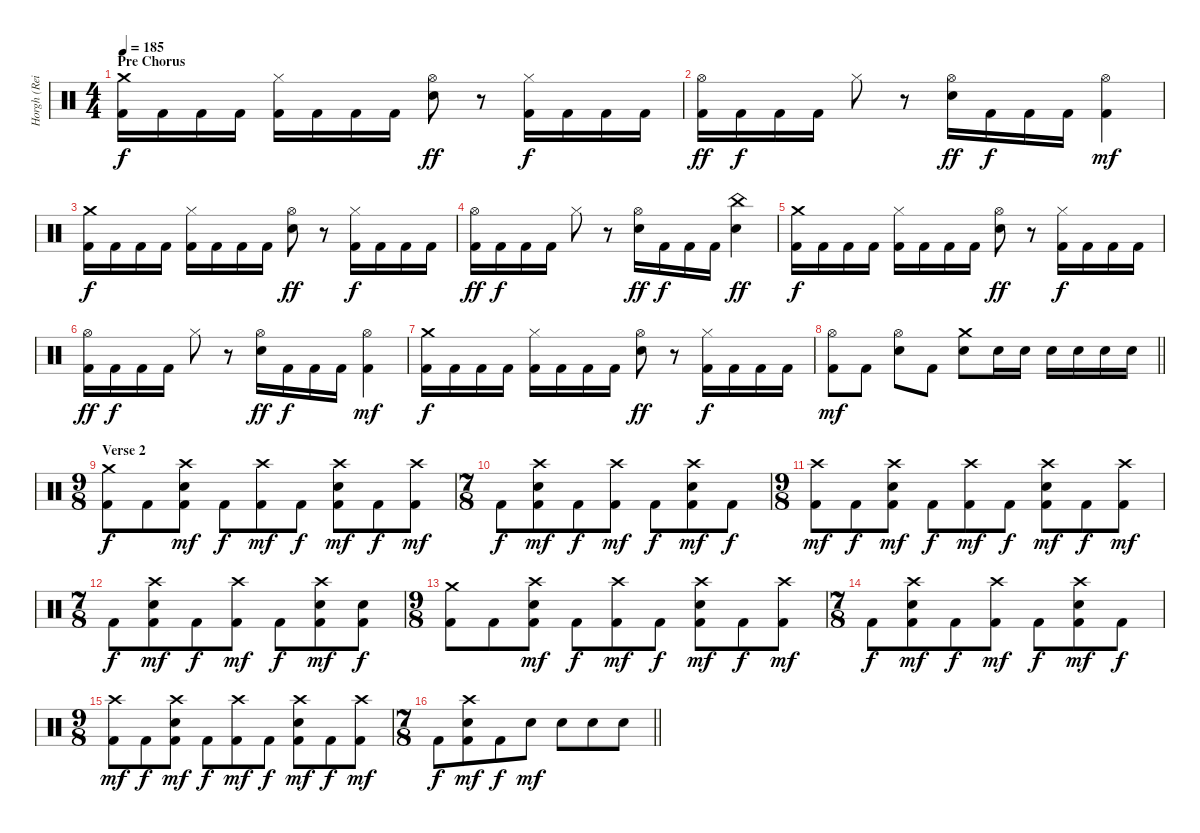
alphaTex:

\track ("Horgh (Reidar Horghagen)" "Horgh (Rei") {instrument percussion}
\staff {score}
\articulation defaults
\ts (4 4)
\section ("" "Pre Chorus")
\tempo 185
\clef neutral
\ks c
("Crash medium (hit)" "Kick (hit) 2").16{dy f} "Kick (hit) 2".16 "Kick (hit) 2".16 "Kick (hit) 2".16 ("Hi-Hat (closed)" "Kick (hit) 2").16 "Kick (hit) 2".16 "Kick (hit) 2".16 "Kick (hit) 2".16 ("Hi-Hat (open)" "Snare (hit) 2").8{dy ff} r.8 ("Hi-Hat (closed)" "Kick (hit) 2").16{dy f} "Kick (hit) 2".16 "Kick (hit) 2".16 "Kick (hit) 2".16 |
("Hi-Hat (open)" "Kick (hit) 2").16{dy ff} "Kick (hit) 2".16{dy f} "Kick (hit) 2".16 "Kick (hit) 2".16 "Hi-Hat (closed)".8 r.8 ("Hi-Hat (open)" "Snare (hit) 2").16{dy ff} "Kick (hit) 2".16{dy f} "Kick (hit) 2".16 "Kick (hit) 2".16 ("Hi-Hat (open)" "Kick (hit) 2").4{dy mf} |
("Crash medium (hit)" "Kick (hit) 2").16{dy f} "Kick (hit) 2".16 "Kick (hit) 2".16 "Kick (hit) 2".16 ("Hi-Hat (closed)" "Kick (hit) 2").16 "Kick (hit) 2".16 "Kick (hit) 2".16 "Kick (hit) 2".16 ("Hi-Hat (open)" "Snare (hit) 2").8{dy ff} r.8 ("Hi-Hat (closed)" "Kick (hit) 2").16{dy f} "Kick (hit) 2".16 "Kick (hit) 2".16 "Kick (hit) 2".16 |
("Hi-Hat (open)" "Kick (hit) 2").16{dy ff} "Kick (hit) 2".16{dy f} "Kick (hit) 2".16 "Kick (hit) 2".16 "Hi-Hat (closed)".8 r.8 ("Hi-Hat (open)" "Snare (hit) 2").16{dy ff} "Kick (hit) 2".16{dy f} "Kick (hit) 2".16 "Kick (hit) 2".16 ("China (hit)" "Snare (hit) 2").4{dy ff} |
("Crash medium (hit)" "Kick (hit) 2").16{dy f} "Kick (hit) 2".16 "Kick (hit) 2".16 "Kick (hit) 2".16 ("Hi-Hat (closed)" "Kick (hit) 2").16 "Kick (hit) 2".16 "Kick (hit) 2".16 "Kick (hit) 2".16 ("Hi-Hat (open)" "Snare (hit) 2").8{dy ff} r.8 ("Hi-Hat (closed)" "Kick (hit) 2").16{dy f} "Kick (hit) 2".16 "Kick (hit) 2".16 "Kick (hit) 2".16 |
("Hi-Hat (open)" "Kick (hit) 2").16{dy ff} "Kick (hit) 2".16{dy f} "Kick (hit) 2".16 "Kick (hit) 2".16 "Hi-Hat (closed)".8 r.8 ("Hi-Hat (open)" "Snare (hit) 2").16{dy ff} "Kick (hit) 2".16{dy f} "Kick (hit) 2".16 "Kick (hit) 2".16 ("Hi-Hat (open)" "Kick (hit) 2").4{dy mf} |
("Crash medium (hit)" "Kick (hit) 2").16{dy f} "Kick (hit) 2".16 "Kick (hit) 2".16 "Kick (hit) 2".16 ("Hi-Hat (closed)" "Kick (hit) 2").16 "Kick (hit) 2".16 "Kick (hit) 2".16 "Kick (hit) 2".16 ("Hi-Hat (open)" "Snare (hit) 2").8{dy ff} r.8 ("Hi-Hat (closed)" "Kick (hit) 2").16{dy f} "Kick (hit) 2".16 "Kick (hit) 2".16 "Kick (hit) 2".16 |
\barLineRight lightlight
("Hi-Hat (open)" "Kick (hit) 2").8{dy mf} "Kick (hit) 2".8 ("Hi-Hat (open)" "Snare (hit) 2").8 "Kick (hit) 2".8 ("Crash medium (hit)" "Snare (hit) 2").8 "Snare (hit) 2".16 "Snare (hit) 2".16 "Snare (hit) 2".16 "Snare (hit) 2".16 "Snare (hit) 2".16 "Snare (hit) 2".16 |
\ts (9 8)
\section ("" "Verse 2")
("Crash medium (hit)" "Kick (hit) 2").8{dy f} "Kick (hit) 2".8 ("Crash high (hit)" "Snare (hit) 2" "Kick (hit) 2").8{dy mf} "Kick (hit) 2".8{dy f} ("Crash high (hit)" "Kick (hit) 2").8{dy mf} "Kick (hit) 2".8{dy f} ("Crash high (hit)" "Snare (hit) 2" "Kick (hit) 2").8{dy mf} "Kick (hit) 2".8{dy f} ("Crash high (hit)" "Kick (hit) 2").8{dy mf} |
\ts (7 8)
"Kick (hit) 2".8{dy f} ("Crash high (hit)" "Snare (hit) 2" "Kick (hit) 2").8{dy mf} "Kick (hit) 2".8{dy f} ("Crash high (hit)" "Kick (hit) 2").8{dy mf} "Kick (hit) 2".8{dy f} ("Crash high (hit)" "Snare (hit) 2" "Kick (hit) 2").8{dy mf} "Kick (hit) 2".8{dy f} |
\ts (9 8)
("Crash high (hit)" "Kick (hit) 2").8{dy mf} "Kick (hit) 2".8{dy f} ("Crash high (hit)" "Snare (hit) 2" "Kick (hit) 2").8{dy mf} "Kick (hit) 2".8{dy f} ("Crash high (hit)" "Kick (hit) 2").8{dy mf} "Kick (hit) 2".8{dy f} ("Crash high (hit)" "Snare (hit) 2" "Kick (hit) 2").8{dy mf} "Kick (hit) 2".8{dy f} ("Crash high (hit)" "Kick (hit) 2").8{dy mf} |
\ts (7 8)
"Kick (hit) 2".8{dy f} ("Crash high (hit)" "Snare (hit) 2" "Kick (hit) 2").8{dy mf} "Kick (hit) 2".8{dy f} ("Crash high (hit)" "Kick (hit) 2").8{dy mf} "Kick (hit) 2".8{dy f} ("Crash high (hit)" "Snare (hit) 2" "Kick (hit) 2").8{dy mf} ("Snare (hit) 2" "Kick (hit) 2").8{dy f} |
\ts (9 8)
("Crash medium (hit)" "Kick (hit) 2").8 "Kick (hit) 2".8 ("Crash high (hit)" "Snare (hit) 2" "Kick (hit) 2").8{dy mf} "Kick (hit) 2".8{dy f} ("Crash high (hit)" "Kick (hit) 2").8{dy mf} "Kick (hit) 2".8{dy f} ("Crash high (hit)" "Snare (hit) 2" "Kick (hit) 2").8{dy mf} "Kick (hit) 2".8{dy f} ("Crash high (hit)" "Kick (hit) 2").8{dy mf} |
\ts (7 8)
"Kick (hit) 2".8{dy f} ("Crash high (hit)" "Snare (hit) 2" "Kick (hit) 2").8{dy mf} "Kick (hit) 2".8{dy f} ("Crash high (hit)" "Kick (hit) 2").8{dy mf} "Kick (hit) 2".8{dy f} ("Crash high (hit)" "Snare (hit) 2" "Kick (hit) 2").8{dy mf} "Kick (hit) 2".8{dy f} |
\ts (9 8)
("Crash high (hit)" "Kick (hit) 2").8{dy mf} "Kick (hit) 2".8{dy f} ("Crash high (hit)" "Snare (hit) 2" "Kick (hit) 2").8{dy mf} "Kick (hit) 2".8{dy f} ("Crash high (hit)" "Kick (hit) 2").8{dy mf} "Kick (hit) 2".8{dy f} ("Crash high (hit)" "Snare (hit) 2" "Kick (hit) 2").8{dy mf} "Kick (hit) 2".8{dy f} ("Crash high (hit)" "Kick (hit) 2").8{dy mf} |
\ts (7 8)
\barLineRight lightlight "Kick (hit) 2".8{dy f}
("Crash high (hit)" "Snare (hit) 2" "Kick (hit) 2").8{dy mf} "Kick (hit) 2".8{dy f} "Snare (hit) 2".8{dy mf} "Snare (hit) 2".8 "Snare (hit) 2".8 "Snare (hit) 2".8
